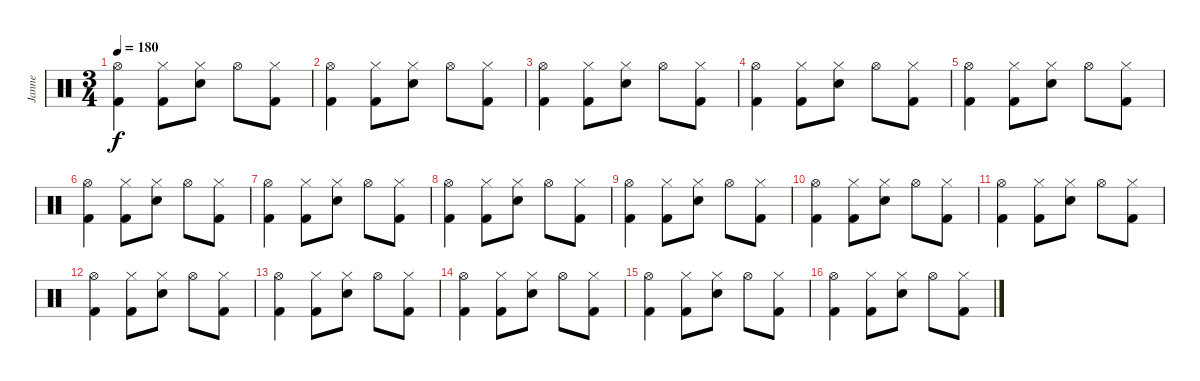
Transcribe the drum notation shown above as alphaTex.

\track ("Janne" "Janne") {instrument percussion}
\staff {score}
\articulation defaults
\ts (3 4)
\tempo 180
\clef neutral
\ks c
("Hi-Hat (open)" "Kick (hit) 2").4{dy f} ("Hi-Hat (closed)" "Kick (hit) 2").8 ("Hi-Hat (closed)" "Electric Snare (hit)").8 "Hi-Hat (open)".8 ("Hi-Hat (closed)" "Kick (hit) 2").8 |
("Hi-Hat (open)" "Kick (hit) 2").4 ("Hi-Hat (closed)" "Kick (hit) 2").8 ("Hi-Hat (closed)" "Electric Snare (hit)").8 "Hi-Hat (open)".8 ("Hi-Hat (closed)" "Kick (hit) 2").8 |
("Hi-Hat (open)" "Kick (hit) 2").4 ("Hi-Hat (closed)" "Kick (hit) 2").8 ("Hi-Hat (closed)" "Electric Snare (hit)").8 "Hi-Hat (open)".8 ("Hi-Hat (closed)" "Kick (hit) 2").8 |
("Hi-Hat (open)" "Kick (hit) 2").4 ("Hi-Hat (closed)" "Kick (hit) 2").8 ("Hi-Hat (closed)" "Electric Snare (hit)").8 "Hi-Hat (open)".8 ("Hi-Hat (closed)" "Kick (hit) 2").8 |
("Hi-Hat (open)" "Kick (hit) 2").4 ("Hi-Hat (closed)" "Kick (hit) 2").8 ("Hi-Hat (closed)" "Electric Snare (hit)").8 "Hi-Hat (open)".8 ("Hi-Hat (closed)" "Kick (hit) 2").8 |
("Hi-Hat (open)" "Kick (hit) 2").4 ("Hi-Hat (closed)" "Kick (hit) 2").8 ("Hi-Hat (closed)" "Electric Snare (hit)").8 "Hi-Hat (open)".8 ("Hi-Hat (closed)" "Kick (hit) 2").8 |
("Hi-Hat (open)" "Kick (hit) 2").4 ("Hi-Hat (closed)" "Kick (hit) 2").8 ("Hi-Hat (closed)" "Electric Snare (hit)").8 "Hi-Hat (open)".8 ("Hi-Hat (closed)" "Kick (hit) 2").8 |
("Hi-Hat (open)" "Kick (hit) 2").4 ("Hi-Hat (closed)" "Kick (hit) 2").8 ("Hi-Hat (closed)" "Electric Snare (hit)").8 "Hi-Hat (open)".8 ("Hi-Hat (closed)" "Kick (hit) 2").8 |
("Hi-Hat (open)" "Kick (hit) 2").4 ("Hi-Hat (closed)" "Kick (hit) 2").8 ("Hi-Hat (closed)" "Electric Snare (hit)").8 "Hi-Hat (open)".8 ("Hi-Hat (closed)" "Kick (hit) 2").8 |
("Hi-Hat (open)" "Kick (hit) 2").4 ("Hi-Hat (closed)" "Kick (hit) 2").8 ("Hi-Hat (closed)" "Electric Snare (hit)").8 "Hi-Hat (open)".8 ("Hi-Hat (closed)" "Kick (hit) 2").8 |
("Hi-Hat (open)" "Kick (hit) 2").4 ("Hi-Hat (closed)" "Kick (hit) 2").8 ("Hi-Hat (closed)" "Electric Snare (hit)").8 "Hi-Hat (open)".8 ("Hi-Hat (closed)" "Kick (hit) 2").8 |
("Hi-Hat (open)" "Kick (hit) 2").4 ("Hi-Hat (closed)" "Kick (hit) 2").8 ("Hi-Hat (closed)" "Electric Snare (hit)").8 "Hi-Hat (open)".8 ("Hi-Hat (closed)" "Kick (hit) 2").8 |
("Hi-Hat (open)" "Kick (hit) 2").4 ("Hi-Hat (closed)" "Kick (hit) 2").8 ("Hi-Hat (closed)" "Electric Snare (hit)").8 "Hi-Hat (open)".8 ("Hi-Hat (closed)" "Kick (hit) 2").8 |
("Hi-Hat (open)" "Kick (hit) 2").4 ("Hi-Hat (closed)" "Kick (hit) 2").8 ("Hi-Hat (closed)" "Electric Snare (hit)").8 "Hi-Hat (open)".8 ("Hi-Hat (closed)" "Kick (hit) 2").8 |
("Hi-Hat (open)" "Kick (hit) 2").4 ("Hi-Hat (closed)" "Kick (hit) 2").8 ("Hi-Hat (closed)" "Electric Snare (hit)").8 "Hi-Hat (open)".8 ("Hi-Hat (closed)" "Kick (hit) 2").8 |
("Hi-Hat (open)" "Kick (hit) 2").4 ("Hi-Hat (closed)" "Kick (hit) 2").8 ("Hi-Hat (closed)" "Electric Snare (hit)").8 "Hi-Hat (open)".8 ("Hi-Hat (closed)" "Kick (hit) 2").8
